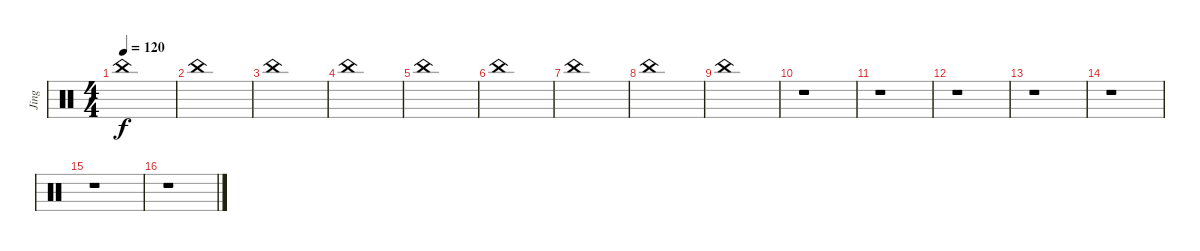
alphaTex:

\track ("Jing" "Jing") {instrument percussion}
\staff {score}
\articulation defaults
\ts (4 4)
\tempo 120
\clef neutral
\ks c "China (hit)".1{dy f}
|
"China (hit)".1 |
"China (hit)".1 |
"China (hit)".1 |
"China (hit)".1 |
"China (hit)".1 |
"China (hit)".1 |
"China (hit)".1 |
"China (hit)".1 |
r.1 |
r.1 |
r.1 |
r.1 |
r.1 |
r.1 |
r.1
